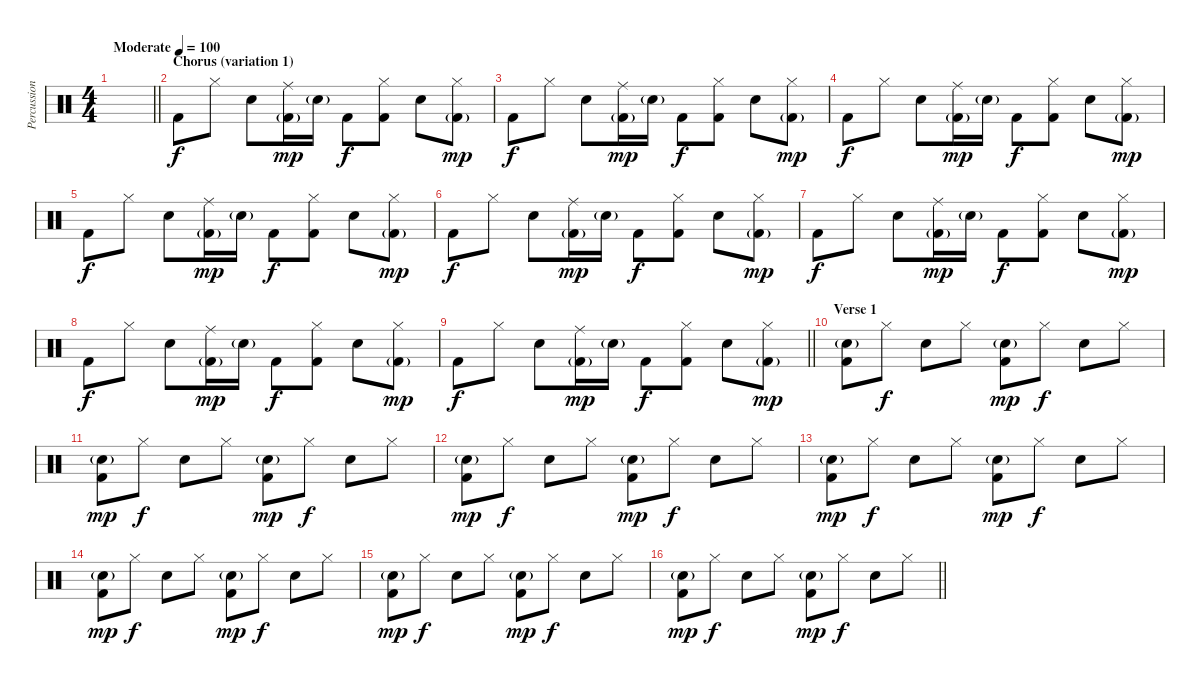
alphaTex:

\track ("Percussion" "Percussion") {instrument percussion}
\staff {score}
\articulation defaults
\ts (4 4)
\tempo (100 "Moderate")
\clef neutral
\barLineRight lightlight
\ks c
|
\section ("" "Chorus (variation 1)")
"Kick (hit) 2".8 "Hi-Hat (closed)".8 "Snare (hit) 2".8 ("Ride (middle)" "Kick (hit) 2"{g}).16{dy mp} "Snare (hit) 2"{g}.16 "Kick (hit) 2".8{dy f} ("Hi-Hat (closed)" "Kick (hit) 2").8 "Snare (hit) 2".8 ("Hi-Hat (closed)" "Kick (hit) 2"{g}).8{dy mp} |
"Kick (hit) 2".8{dy f} "Hi-Hat (closed)".8 "Snare (hit) 2".8 ("Ride (middle)" "Kick (hit) 2"{g}).16{dy mp} "Snare (hit) 2"{g}.16 "Kick (hit) 2".8{dy f} ("Hi-Hat (closed)" "Kick (hit) 2").8 "Snare (hit) 2".8 ("Hi-Hat (closed)" "Kick (hit) 2"{g}).8{dy mp} |
"Kick (hit) 2".8{dy f} "Hi-Hat (closed)".8 "Snare (hit) 2".8 ("Ride (middle)" "Kick (hit) 2"{g}).16{dy mp} "Snare (hit) 2"{g}.16 "Kick (hit) 2".8{dy f} ("Hi-Hat (closed)" "Kick (hit) 2").8 "Snare (hit) 2".8 ("Hi-Hat (closed)" "Kick (hit) 2"{g}).8{dy mp} |
"Kick (hit) 2".8{dy f} "Hi-Hat (closed)".8 "Snare (hit) 2".8 ("Ride (middle)" "Kick (hit) 2"{g}).16{dy mp} "Snare (hit) 2"{g}.16 "Kick (hit) 2".8{dy f} ("Hi-Hat (closed)" "Kick (hit) 2").8 "Snare (hit) 2".8 ("Hi-Hat (closed)" "Kick (hit) 2"{g}).8{dy mp} |
"Kick (hit) 2".8{dy f} "Hi-Hat (closed)".8 "Snare (hit) 2".8 ("Ride (middle)" "Kick (hit) 2"{g}).16{dy mp} "Snare (hit) 2"{g}.16 "Kick (hit) 2".8{dy f} ("Hi-Hat (closed)" "Kick (hit) 2").8 "Snare (hit) 2".8 ("Hi-Hat (closed)" "Kick (hit) 2"{g}).8{dy mp} |
"Kick (hit) 2".8{dy f} "Hi-Hat (closed)".8 "Snare (hit) 2".8 ("Ride (middle)" "Kick (hit) 2"{g}).16{dy mp} "Snare (hit) 2"{g}.16 "Kick (hit) 2".8{dy f} ("Hi-Hat (closed)" "Kick (hit) 2").8 "Snare (hit) 2".8 ("Hi-Hat (closed)" "Kick (hit) 2"{g}).8{dy mp} |
"Kick (hit) 2".8{dy f} "Hi-Hat (closed)".8 "Snare (hit) 2".8 ("Ride (middle)" "Kick (hit) 2"{g}).16{dy mp} "Snare (hit) 2"{g}.16 "Kick (hit) 2".8{dy f} ("Hi-Hat (closed)" "Kick (hit) 2").8 "Snare (hit) 2".8 ("Hi-Hat (closed)" "Kick (hit) 2"{g}).8{dy mp} |
\barLineRight lightlight "Kick (hit) 2".8{dy f} "Hi-Hat (closed)".8 "Snare (hit) 2".8
("Ride (middle)" "Kick (hit) 2"{g}).16{dy mp} "Snare (hit) 2"{g}.16 "Kick (hit) 2".8{dy f} ("Hi-Hat (closed)" "Kick (hit) 2").8 "Snare (hit) 2".8 ("Hi-Hat (closed)" "Kick (hit) 2"{g}).8{dy mp} |
\section ("" "Verse 1")
("Snare (hit) 2"{g} "Kick (hit) 2").8 "Hi-Hat (closed)".8{dy f} "Snare (hit) 2".8 "Hi-Hat (closed)".8 ("Snare (hit) 2"{g} "Kick (hit) 2").8{dy mp} "Hi-Hat (closed)".8{dy f} "Snare (hit) 2".8 "Hi-Hat (closed)".8 |
("Snare (hit) 2"{g} "Kick (hit) 2").8{dy mp} "Hi-Hat (closed)".8{dy f} "Snare (hit) 2".8 "Hi-Hat (closed)".8 ("Snare (hit) 2"{g} "Kick (hit) 2").8{dy mp} "Hi-Hat (closed)".8{dy f} "Snare (hit) 2".8 "Hi-Hat (closed)".8 |
("Snare (hit) 2"{g} "Kick (hit) 2").8{dy mp} "Hi-Hat (closed)".8{dy f} "Snare (hit) 2".8 "Hi-Hat (closed)".8 ("Snare (hit) 2"{g} "Kick (hit) 2").8{dy mp} "Hi-Hat (closed)".8{dy f} "Snare (hit) 2".8 "Hi-Hat (closed)".8 |
("Snare (hit) 2"{g} "Kick (hit) 2").8{dy mp} "Hi-Hat (closed)".8{dy f} "Snare (hit) 2".8 "Hi-Hat (closed)".8 ("Snare (hit) 2"{g} "Kick (hit) 2").8{dy mp} "Hi-Hat (closed)".8{dy f} "Snare (hit) 2".8 "Hi-Hat (closed)".8 |
("Snare (hit) 2"{g} "Kick (hit) 2").8{dy mp} "Hi-Hat (closed)".8{dy f} "Snare (hit) 2".8 "Hi-Hat (closed)".8 ("Snare (hit) 2"{g} "Kick (hit) 2").8{dy mp} "Hi-Hat (closed)".8{dy f} "Snare (hit) 2".8 "Hi-Hat (closed)".8 |
("Snare (hit) 2"{g} "Kick (hit) 2").8{dy mp} "Hi-Hat (closed)".8{dy f} "Snare (hit) 2".8 "Hi-Hat (closed)".8 ("Snare (hit) 2"{g} "Kick (hit) 2").8{dy mp} "Hi-Hat (closed)".8{dy f} "Snare (hit) 2".8 "Hi-Hat (closed)".8 |
\barLineRight lightlight
("Snare (hit) 2"{g} "Kick (hit) 2").8{dy mp} "Hi-Hat (closed)".8{dy f} "Snare (hit) 2".8 "Hi-Hat (closed)".8 ("Snare (hit) 2"{g} "Kick (hit) 2").8{dy mp} "Hi-Hat (closed)".8{dy f} "Snare (hit) 2".8 "Hi-Hat (closed)".8
